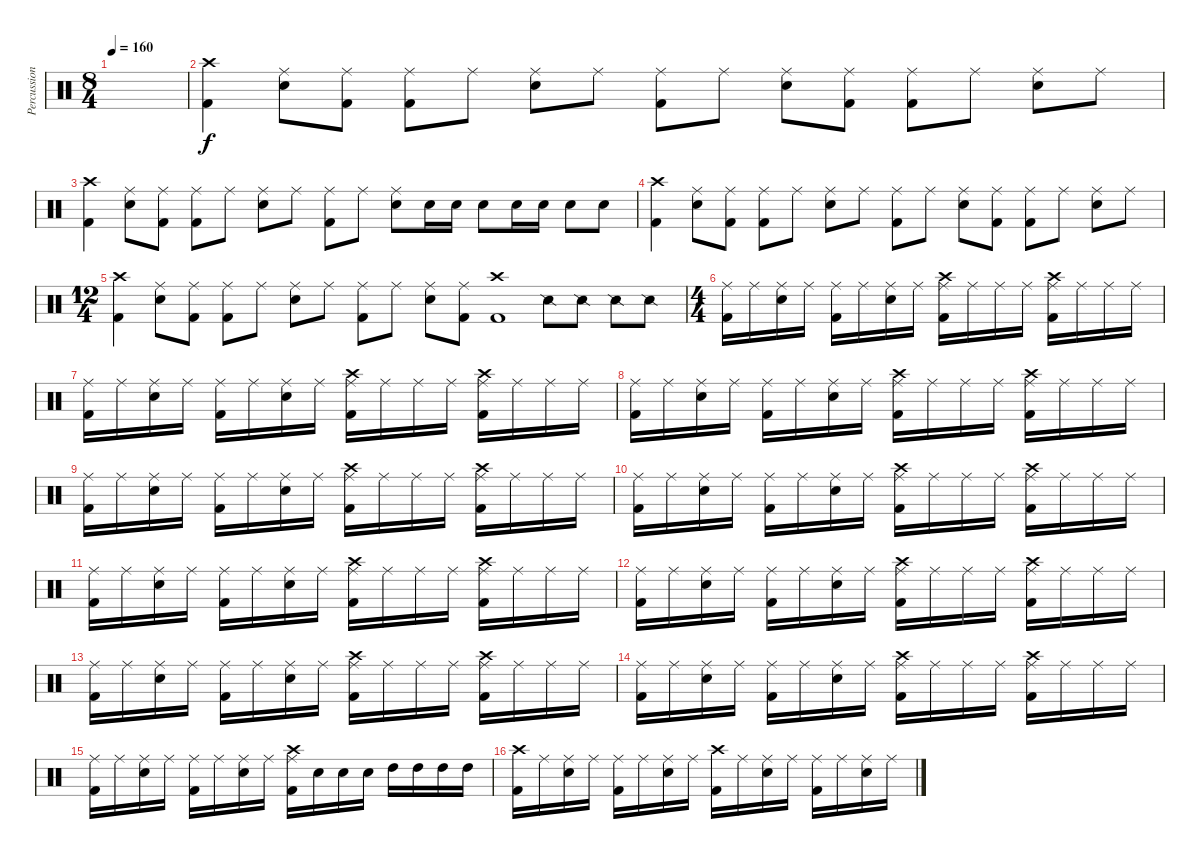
\track ("Percussion" "Percussion") {instrument percussion}
\staff {score}
\articulation defaults
\ts (8 4)
\tempo 160
\clef neutral
\ks c
|
("Kick (hit) 2" "Crash high (hit)").4 ("Snare (hit) 2" "Ride (middle)").8 ("Kick (hit) 2" "Ride (middle)").8 ("Kick (hit) 2" "Ride (middle)").8 "Ride (middle)".8 ("Snare (hit) 2" "Ride (middle)").8 "Ride (middle)".8 ("Kick (hit) 2" "Ride (middle)").8 "Ride (middle)".8 ("Snare (hit) 2" "Ride (middle)").8 ("Kick (hit) 2" "Ride (middle)").8 ("Kick (hit) 2" "Ride (middle)").8 "Ride (middle)".8 ("Snare (hit) 2" "Ride (middle)").8 "Ride (middle)".8 |
("Kick (hit) 2" "Crash high (hit)").4 ("Snare (hit) 2" "Ride (middle)").8 ("Kick (hit) 2" "Ride (middle)").8 ("Kick (hit) 2" "Ride (middle)").8 "Ride (middle)".8 ("Snare (hit) 2" "Ride (middle)").8 "Ride (middle)".8 ("Kick (hit) 2" "Ride (middle)").8 "Ride (middle)".8 ("Snare (hit) 2" "Ride (middle)").8 "Snare (hit) 2".16 "Snare (hit) 2".16 "Snare (hit) 2".8 "Snare (hit) 2".16 "Snare (hit) 2".16 "Snare (hit) 2".8 "Snare (hit) 2".8 |
("Kick (hit) 2" "Crash high (hit)").4 ("Snare (hit) 2" "Ride (middle)").8 ("Kick (hit) 2" "Ride (middle)").8 ("Kick (hit) 2" "Ride (middle)").8 "Ride (middle)".8 ("Snare (hit) 2" "Ride (middle)").8 "Ride (middle)".8 ("Kick (hit) 2" "Ride (middle)").8 "Ride (middle)".8 ("Snare (hit) 2" "Ride (middle)").8 ("Kick (hit) 2" "Ride (middle)").8 ("Kick (hit) 2" "Ride (middle)").8 "Ride (middle)".8 ("Snare (hit) 2" "Ride (middle)").8 "Ride (middle)".8 |
\ts (12 4)
("Kick (hit) 2" "Crash high (hit)").4 ("Snare (hit) 2" "Ride (middle)").8 ("Kick (hit) 2" "Ride (middle)").8 ("Kick (hit) 2" "Ride (middle)").8 "Ride (middle)".8 ("Snare (hit) 2" "Ride (middle)").8 "Ride (middle)".8 ("Kick (hit) 2" "Ride (middle)").8 "Ride (middle)".8 ("Snare (hit) 2" "Ride (middle)").8 ("Kick (hit) 2" "Ride (middle)").8 ("Kick (hit) 2" "Crash high (hit)").1 "Snare (side stick) 2".8 "Snare (side stick) 2".8 "Snare (side stick) 2".8 "Snare (side stick) 2".8 |
\ts (4 4)
("Kick (hit) 2" "Ride (middle)").16 "Ride (middle)".16 ("Snare (hit) 2" "Ride (middle)").16 "Ride (middle)".16 ("Kick (hit) 2" "Ride (middle)").16 "Ride (middle)".16 ("Snare (hit) 2" "Ride (middle)").16 "Ride (middle)".16 ("Kick (hit) 2" "Crash high (hit)" "Ride (middle)").16 "Ride (middle)".16 "Ride (middle)".16 "Ride (middle)".16 ("Kick (hit) 2" "Crash high (hit)" "Ride (middle)").16 "Ride (middle)".16 "Ride (middle)".16 "Ride (middle)".16 |
("Kick (hit) 2" "Ride (middle)").16 "Ride (middle)".16 ("Snare (hit) 2" "Ride (middle)").16 "Ride (middle)".16 ("Kick (hit) 2" "Ride (middle)").16 "Ride (middle)".16 ("Snare (hit) 2" "Ride (middle)").16 "Ride (middle)".16 ("Kick (hit) 2" "Crash high (hit)" "Ride (middle)").16 "Ride (middle)".16 "Ride (middle)".16 "Ride (middle)".16 ("Kick (hit) 2" "Crash high (hit)" "Ride (middle)").16 "Ride (middle)".16 "Ride (middle)".16 "Ride (middle)".16 |
("Kick (hit) 2" "Ride (middle)").16 "Ride (middle)".16 ("Snare (hit) 2" "Ride (middle)").16 "Ride (middle)".16 ("Kick (hit) 2" "Ride (middle)").16 "Ride (middle)".16 ("Snare (hit) 2" "Ride (middle)").16 "Ride (middle)".16 ("Kick (hit) 2" "Crash high (hit)" "Ride (middle)").16 "Ride (middle)".16 "Ride (middle)".16 "Ride (middle)".16 ("Kick (hit) 2" "Crash high (hit)" "Ride (middle)").16 "Ride (middle)".16 "Ride (middle)".16 "Ride (middle)".16 |
("Kick (hit) 2" "Ride (middle)").16 "Ride (middle)".16 ("Snare (hit) 2" "Ride (middle)").16 "Ride (middle)".16 ("Kick (hit) 2" "Ride (middle)").16 "Ride (middle)".16 ("Snare (hit) 2" "Ride (middle)").16 "Ride (middle)".16 ("Kick (hit) 2" "Crash high (hit)" "Ride (middle)").16 "Ride (middle)".16 "Ride (middle)".16 "Ride (middle)".16 ("Kick (hit) 2" "Crash high (hit)" "Ride (middle)").16 "Ride (middle)".16 "Ride (middle)".16 "Ride (middle)".16 |
("Kick (hit) 2" "Ride (middle)").16 "Ride (middle)".16 ("Snare (hit) 2" "Ride (middle)").16 "Ride (middle)".16 ("Kick (hit) 2" "Ride (middle)").16 "Ride (middle)".16 ("Snare (hit) 2" "Ride (middle)").16 "Ride (middle)".16 ("Kick (hit) 2" "Crash high (hit)" "Ride (middle)").16 "Ride (middle)".16 "Ride (middle)".16 "Ride (middle)".16 ("Kick (hit) 2" "Crash high (hit)" "Ride (middle)").16 "Ride (middle)".16 "Ride (middle)".16 "Ride (middle)".16 |
("Kick (hit) 2" "Ride (middle)").16 "Ride (middle)".16 ("Snare (hit) 2" "Ride (middle)").16 "Ride (middle)".16 ("Kick (hit) 2" "Ride (middle)").16 "Ride (middle)".16 ("Snare (hit) 2" "Ride (middle)").16 "Ride (middle)".16 ("Kick (hit) 2" "Crash high (hit)" "Ride (middle)").16 "Ride (middle)".16 "Ride (middle)".16 "Ride (middle)".16 ("Kick (hit) 2" "Crash high (hit)" "Ride (middle)").16 "Ride (middle)".16 "Ride (middle)".16 "Ride (middle)".16 |
("Kick (hit) 2" "Ride (middle)").16 "Ride (middle)".16 ("Snare (hit) 2" "Ride (middle)").16 "Ride (middle)".16 ("Kick (hit) 2" "Ride (middle)").16 "Ride (middle)".16 ("Snare (hit) 2" "Ride (middle)").16 "Ride (middle)".16 ("Kick (hit) 2" "Crash high (hit)" "Ride (middle)").16 "Ride (middle)".16 "Ride (middle)".16 "Ride (middle)".16 ("Kick (hit) 2" "Crash high (hit)" "Ride (middle)").16 "Ride (middle)".16 "Ride (middle)".16 "Ride (middle)".16 |
("Kick (hit) 2" "Ride (middle)").16 "Ride (middle)".16 ("Snare (hit) 2" "Ride (middle)").16 "Ride (middle)".16 ("Kick (hit) 2" "Ride (middle)").16 "Ride (middle)".16 ("Snare (hit) 2" "Ride (middle)").16 "Ride (middle)".16 ("Kick (hit) 2" "Crash high (hit)" "Ride (middle)").16 "Ride (middle)".16 "Ride (middle)".16 "Ride (middle)".16 ("Kick (hit) 2" "Crash high (hit)" "Ride (middle)").16 "Ride (middle)".16 "Ride (middle)".16 "Ride (middle)".16 |
("Kick (hit) 2" "Ride (middle)").16 "Ride (middle)".16 ("Snare (hit) 2" "Ride (middle)").16 "Ride (middle)".16 ("Kick (hit) 2" "Ride (middle)").16 "Ride (middle)".16 ("Snare (hit) 2" "Ride (middle)").16 "Ride (middle)".16 ("Kick (hit) 2" "Crash high (hit)" "Ride (middle)").16 "Ride (middle)".16 "Ride (middle)".16 "Ride (middle)".16 ("Kick (hit) 2" "Crash high (hit)" "Ride (middle)").16 "Ride (middle)".16 "Ride (middle)".16 "Ride (middle)".16 |
("Kick (hit) 2" "Ride (middle)").16 "Ride (middle)".16 ("Snare (hit) 2" "Ride (middle)").16 "Ride (middle)".16 ("Kick (hit) 2" "Ride (middle)").16 "Ride (middle)".16 ("Snare (hit) 2" "Ride (middle)").16 "Ride (middle)".16 ("Kick (hit) 2" "Crash high (hit)" "Ride (middle)").16 "Snare (hit) 2".16 "Snare (hit) 2".16 "Snare (hit) 2".16 "High Tom (hit)".16 "High Tom (hit)".16 "High Tom (hit)".16 "High Tom (hit)".16 |
("Crash high (hit)" "Kick (hit) 2").16 "Ride (middle)".16 ("Snare (hit) 2" "Ride (middle)").16 "Ride (middle)".16 ("Kick (hit) 2" "Ride (middle)").16 "Ride (middle)".16 ("Snare (hit) 2" "Ride (middle)").16 "Ride (middle)".16 ("Crash high (hit)" "Kick (hit) 2").16 "Ride (middle)".16 ("Snare (hit) 2" "Ride (middle)").16 "Ride (middle)".16 ("Kick (hit) 2" "Ride (middle)").16 "Ride (middle)".16 ("Snare (hit) 2" "Ride (middle)").16 "Ride (middle)".16
